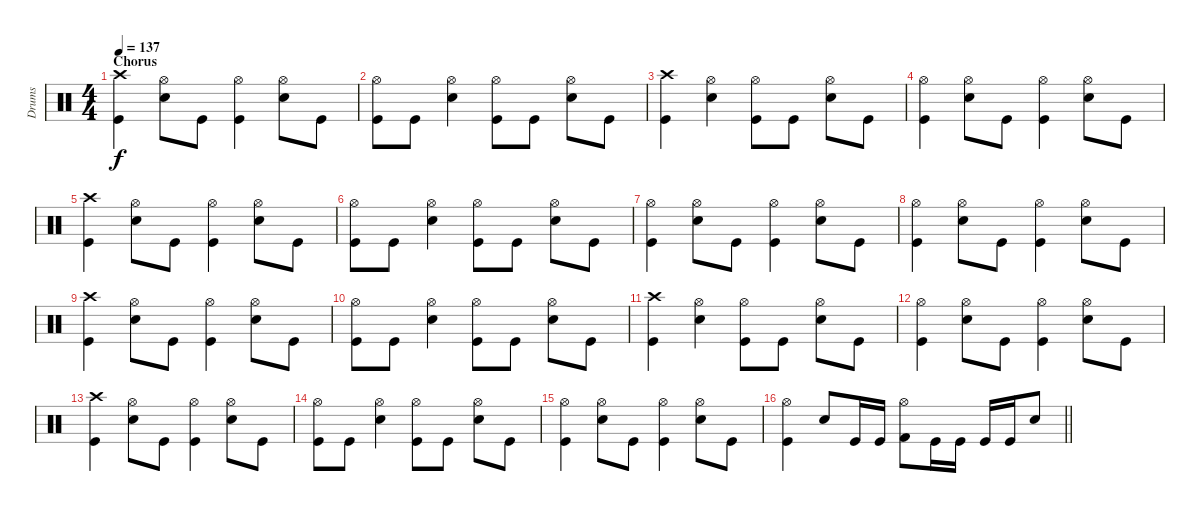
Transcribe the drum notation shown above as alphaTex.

\track ("Drums" "Drums") {instrument percussion}
\staff {score}
\articulation defaults
\ts (4 4)
\section ("" "Chorus ")
\tempo 137
\clef neutral
\ks c
("Crash high (hit)" "Kick (hit)").4{dy f} ("Hi-Hat (open)" "Electric Snare (hit)").8 "Kick (hit)".8 ("Hi-Hat (open)" "Kick (hit)").4 ("Hi-Hat (open)" "Electric Snare (hit)").8 "Kick (hit)".8 |
("Hi-Hat (open)" "Kick (hit)").8 "Kick (hit)".8 ("Hi-Hat (open)" "Electric Snare (hit)").4 ("Hi-Hat (open)" "Kick (hit)").8 "Kick (hit)".8 ("Hi-Hat (open)" "Electric Snare (hit)").8 "Kick (hit)".8 |
("Crash high (hit)" "Kick (hit)").4 ("Hi-Hat (open)" "Electric Snare (hit)").4 ("Hi-Hat (open)" "Kick (hit)").8 "Kick (hit)".8 ("Hi-Hat (open)" "Electric Snare (hit)").8 "Kick (hit)".8 |
("Hi-Hat (open)" "Kick (hit)").4 ("Hi-Hat (open)" "Electric Snare (hit)").8 "Kick (hit)".8 ("Hi-Hat (open)" "Kick (hit)").4 ("Hi-Hat (open)" "Electric Snare (hit)").8 "Kick (hit)".8 |
("Crash high (hit)" "Kick (hit)").4 ("Hi-Hat (open)" "Electric Snare (hit)").8 "Kick (hit)".8 ("Hi-Hat (open)" "Kick (hit)").4 ("Hi-Hat (open)" "Electric Snare (hit)").8 "Kick (hit)".8 |
("Hi-Hat (open)" "Kick (hit)").8 "Kick (hit)".8 ("Hi-Hat (open)" "Electric Snare (hit)").4 ("Hi-Hat (open)" "Kick (hit)").8 "Kick (hit)".8 ("Hi-Hat (open)" "Electric Snare (hit)").8 "Kick (hit)".8 |
("Hi-Hat (open)" "Kick (hit)").4 ("Hi-Hat (open)" "Electric Snare (hit)").8 "Kick (hit)".8 ("Hi-Hat (open)" "Kick (hit)").4 ("Hi-Hat (open)" "Electric Snare (hit)").8 "Kick (hit)".8 |
("Hi-Hat (open)" "Kick (hit)").4 ("Hi-Hat (open)" "Electric Snare (hit)").8 "Kick (hit)".8 ("Hi-Hat (open)" "Kick (hit)").4 ("Hi-Hat (open)" "Electric Snare (hit)").8 "Kick (hit)".8 |
("Crash high (hit)" "Kick (hit)").4 ("Hi-Hat (open)" "Electric Snare (hit)").8 "Kick (hit)".8 ("Hi-Hat (open)" "Kick (hit)").4 ("Hi-Hat (open)" "Electric Snare (hit)").8 "Kick (hit)".8 |
("Hi-Hat (open)" "Kick (hit)").8 "Kick (hit)".8 ("Hi-Hat (open)" "Electric Snare (hit)").4 ("Hi-Hat (open)" "Kick (hit)").8 "Kick (hit)".8 ("Hi-Hat (open)" "Electric Snare (hit)").8 "Kick (hit)".8 |
("Crash high (hit)" "Kick (hit)").4 ("Hi-Hat (open)" "Electric Snare (hit)").4 ("Hi-Hat (open)" "Kick (hit)").8 "Kick (hit)".8 ("Hi-Hat (open)" "Electric Snare (hit)").8 "Kick (hit)".8 |
("Hi-Hat (open)" "Kick (hit)").4 ("Hi-Hat (open)" "Electric Snare (hit)").8 "Kick (hit)".8 ("Hi-Hat (open)" "Kick (hit)").4 ("Hi-Hat (open)" "Electric Snare (hit)").8 "Kick (hit)".8 |
("Crash high (hit)" "Kick (hit)").4 ("Hi-Hat (open)" "Electric Snare (hit)").8 "Kick (hit)".8 ("Hi-Hat (open)" "Kick (hit)").4 ("Hi-Hat (open)" "Electric Snare (hit)").8 "Kick (hit)".8 |
("Hi-Hat (open)" "Kick (hit)").8 "Kick (hit)".8 ("Hi-Hat (open)" "Electric Snare (hit)").4 ("Hi-Hat (open)" "Kick (hit)").8 "Kick (hit)".8 ("Hi-Hat (open)" "Electric Snare (hit)").8 "Kick (hit)".8 |
("Hi-Hat (open)" "Kick (hit)").4 ("Hi-Hat (open)" "Electric Snare (hit)").8 "Kick (hit)".8 ("Hi-Hat (open)" "Kick (hit)").4 ("Hi-Hat (open)" "Electric Snare (hit)").8 "Kick (hit)".8 |
\barLineRight lightlight
("Hi-Hat (open)" "Kick (hit)").4 "Electric Snare (hit)".8 "Kick (hit)".16 "Kick (hit)".16 ("Hi-Hat (open)" "Kick (hit) 2").8 "Kick (hit)".16 "Kick (hit)".16 "Kick (hit)".16 "Kick (hit)".16 "Electric Snare (hit)".8
